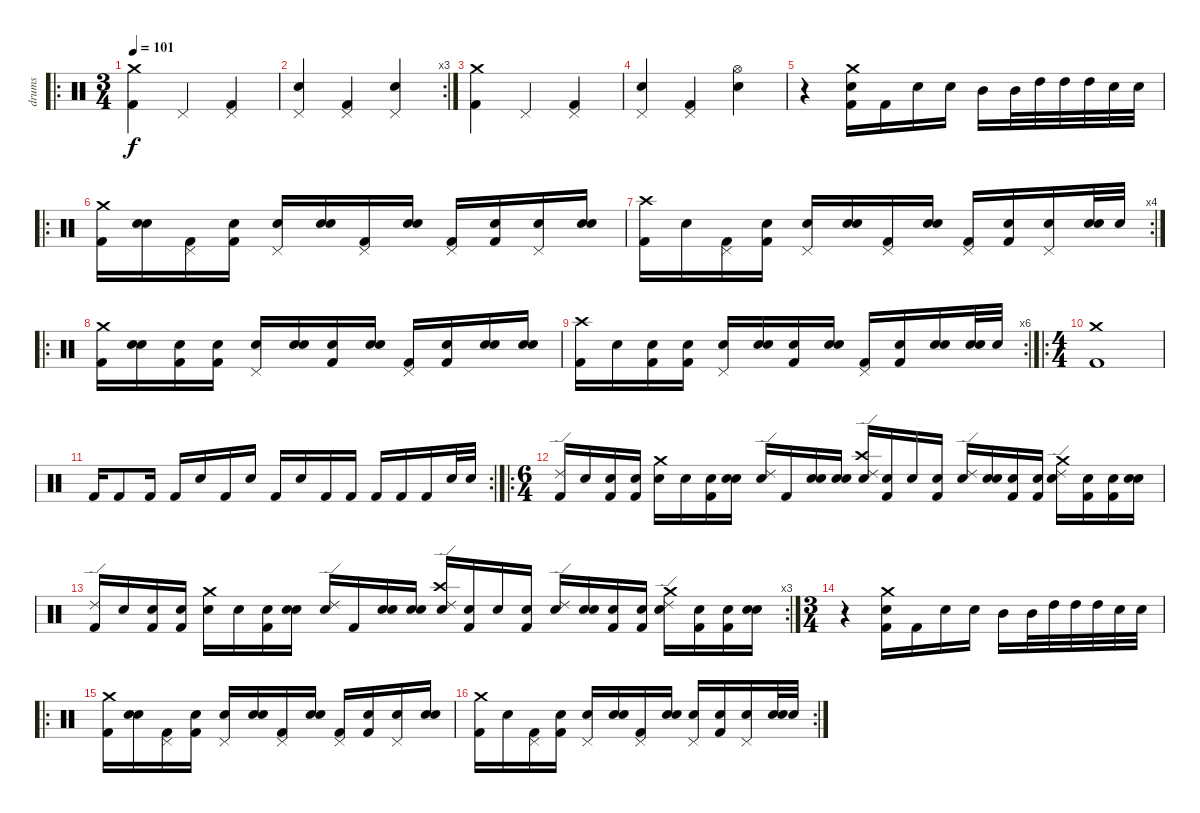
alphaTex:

\track ("drums" "drums") {instrument percussion}
\staff {score}
\articulation defaults
\ro
\ts (3 4)
\tempo 101
\clef neutral
\ks c
("Crash medium (hit)" "Kick (hit) 2").4{dy f} "Pedal Hi-Hat (hit)".4 ("Pedal Hi-Hat (hit)" "Kick (hit) 2").4 |
\rc 3
("Pedal Hi-Hat (hit)" "Snare (hit)").4 ("Pedal Hi-Hat (hit)" "Kick (hit) 2").4 ("Pedal Hi-Hat (hit)" "Snare (hit)").4 |
("Crash medium (hit)" "Kick (hit) 2").4 "Pedal Hi-Hat (hit)".4 ("Pedal Hi-Hat (hit)" "Kick (hit) 2").4 |
("Pedal Hi-Hat (hit)" "Snare (hit)").4 ("Pedal Hi-Hat (hit)" "Kick (hit) 2").4 ("Hi-Hat (open)" "Snare (hit)").4 |
r.4 ("Crash medium (hit)" "Kick (hit) 2" "Electric Snare (hit)").16 "Kick (hit) 2".16 "Electric Snare (hit)".16 "Electric Snare (hit)".16 "Mid Tom (hit)".16 "Mid Tom (hit)".32 "High Tom (hit)".32 "High Tom (hit)".32 "High Tom (hit)".32 "Electric Snare (hit)".32 "Electric Snare (hit)".32 |
\ro
("Crash medium (hit)" "Kick (hit) 2").16 ("Snare (hit)" "Snare (hit)").16 ("Pedal Hi-Hat (hit)" "Kick (hit) 2").16 ("Snare (hit)" "Kick (hit) 2").16 ("Pedal Hi-Hat (hit)" "Electric Snare (hit)").16 ("Snare (hit)" "Snare (hit)").16 ("Pedal Hi-Hat (hit)" "Kick (hit) 2").16 ("Snare (hit)" "Snare (hit)").16 ("Pedal Hi-Hat (hit)" "Kick (hit) 2").16 ("Snare (hit)" "Kick (hit) 2").16 ("Pedal Hi-Hat (hit)" "Electric Snare (hit)").16 ("Snare (hit)" "Electric Snare (hit)").16 |
\rc 4
("Crash high (hit)" "Kick (hit) 2").16 "Snare (hit)".16 ("Pedal Hi-Hat (hit)" "Kick (hit) 2").16 ("Snare (hit)" "Kick (hit) 2").16 ("Pedal Hi-Hat (hit)" "Electric Snare (hit)").16 ("Snare (hit)" "Snare (hit)").16 ("Pedal Hi-Hat (hit)" "Kick (hit) 2").16 ("Snare (hit)" "Snare (hit)").16 ("Pedal Hi-Hat (hit)" "Kick (hit) 2").16 ("Snare (hit)" "Kick (hit) 2").16 ("Pedal Hi-Hat (hit)" "Electric Snare (hit)").16 ("Snare (hit)" "Electric Snare (hit)").32 "Electric Snare (hit)".32 |
\ro
("Crash medium (hit)" "Kick (hit) 2").16 ("Snare (hit)" "Snare (hit)").16 ("Snare (hit)" "Kick (hit) 2").16 ("Snare (hit)" "Kick (hit) 2").16 ("Pedal Hi-Hat (hit)" "Electric Snare (hit)").16 ("Snare (hit)" "Snare (hit)").16 ("Snare (hit)" "Kick (hit) 2").16 ("Snare (hit)" "Snare (hit)").16 ("Pedal Hi-Hat (hit)" "Kick (hit) 2").16 ("Snare (hit)" "Kick (hit) 2").16 ("Snare (hit)" "Electric Snare (hit)").16 ("Snare (hit)" "Electric Snare (hit)").16 |
\rc 6
("Crash high (hit)" "Kick (hit) 2").16 "Snare (hit)".16 ("Snare (hit)" "Kick (hit) 2").16 ("Snare (hit)" "Kick (hit) 2").16 ("Pedal Hi-Hat (hit)" "Electric Snare (hit)").16 ("Snare (hit)" "Snare (hit)").16 ("Snare (hit)" "Kick (hit) 2").16 ("Snare (hit)" "Snare (hit)").16 ("Pedal Hi-Hat (hit)" "Kick (hit) 2").16 ("Snare (hit)" "Kick (hit) 2").16 ("Snare (hit)" "Electric Snare (hit)").16 ("Snare (hit)" "Electric Snare (hit)").32 "Electric Snare (hit)".32 |
\ro
\ts (4 4)
("Crash medium (hit)" "Kick (hit) 2").1 |
\rc 2 "Kick (hit) 2".16 "Kick (hit) 2".8 "Kick (hit) 2".16 "Kick (hit) 2".16 "Electric Snare (hit)".16 "Kick (hit) 2".16 "Snare (hit)".16 "Kick (hit) 2".16 "Snare (hit)".16 "Kick (hit) 2".16 "Kick (hit) 2".16 "Kick (hit) 2".16 "Kick (hit) 2".16 "Kick (hit) 2".16 "Electric Snare (hit)".32 "Electric Snare (hit)".32
|
\ro
\ts (6 4)
("Ride (edge) 2" "Kick (hit) 2").16 "Snare (hit)".16 ("Snare (hit)" "Kick (hit) 2").16 ("Snare (hit)" "Kick (hit) 2").16 ("Crash medium (hit)" "Electric Snare (hit)").16 "Snare (hit)".16 ("Snare (hit)" "Kick (hit) 2").16 ("Snare (hit)" "Snare (hit)").16 ("Ride (edge) 2" "Snare (hit)").16 "Kick (hit) 2".16 ("Snare (hit)" "Snare (hit)").16 ("Snare (hit)" "Snare (hit)").16 ("Crash high (hit)" "Electric Snare (hit)" "Ride (edge) 2").16 ("Snare (hit)" "Kick (hit) 2").16 "Snare (hit)".16 ("Snare (hit)" "Kick (hit) 2").16 ("Snare (hit)" "Ride (edge) 2").16 ("Snare (hit)" "Snare (hit)").16 ("Snare (hit)" "Kick (hit) 2").16 ("Snare (hit)" "Kick (hit) 2").16 ("Crash medium (hit)" "Electric Snare (hit)" "Ride (edge) 2").16 ("Snare (hit)" "Kick (hit) 2").16 ("Snare (hit)" "Kick (hit) 2").16 ("Snare (hit)" "Snare (hit)").16 |
\rc 3
("Ride (edge) 2" "Kick (hit) 2").16 "Snare (hit)".16 ("Snare (hit)" "Kick (hit) 2").16 ("Snare (hit)" "Kick (hit) 2").16 ("Crash medium (hit)" "Electric Snare (hit)").16 "Snare (hit)".16 ("Snare (hit)" "Kick (hit) 2").16 ("Snare (hit)" "Snare (hit)").16 ("Ride (edge) 2" "Snare (hit)").16 "Kick (hit) 2".16 ("Snare (hit)" "Snare (hit)").16 ("Snare (hit)" "Snare (hit)").16 ("Crash high (hit)" "Electric Snare (hit)" "Ride (edge) 2").16 ("Snare (hit)" "Kick (hit) 2").16 "Snare (hit)".16 ("Snare (hit)" "Kick (hit) 2").16 ("Snare (hit)" "Ride (edge) 2").16 ("Snare (hit)" "Snare (hit)").16 ("Snare (hit)" "Kick (hit) 2").16 ("Snare (hit)" "Kick (hit) 2").16 ("Crash medium (hit)" "Electric Snare (hit)" "Ride (edge) 2").16 ("Snare (hit)" "Kick (hit) 2").16 ("Snare (hit)" "Kick (hit) 2").16 ("Snare (hit)" "Snare (hit)").16 |
\ts (3 4)
r.4 ("Crash medium (hit)" "Kick (hit) 2" "Electric Snare (hit)").16 "Kick (hit) 2".16 "Electric Snare (hit)".16 "Electric Snare (hit)".16 "Mid Tom (hit)".16 "Mid Tom (hit)".32 "High Tom (hit)".32 "High Tom (hit)".32 "High Tom (hit)".32 "Electric Snare (hit)".32 "Electric Snare (hit)".32 |
\ro
("Crash medium (hit)" "Kick (hit) 2").16 ("Snare (hit)" "Snare (hit)").16 ("Pedal Hi-Hat (hit)" "Kick (hit) 2").16 ("Snare (hit)" "Kick (hit) 2").16 ("Pedal Hi-Hat (hit)" "Electric Snare (hit)").16 ("Snare (hit)" "Snare (hit)").16 ("Pedal Hi-Hat (hit)" "Kick (hit) 2").16 ("Snare (hit)" "Snare (hit)").16 ("Pedal Hi-Hat (hit)" "Kick (hit) 2").16 ("Snare (hit)" "Kick (hit) 2").16 ("Pedal Hi-Hat (hit)" "Electric Snare (hit)").16 ("Snare (hit)" "Electric Snare (hit)").16 |
\rc 2
("Crash medium (hit)" "Kick (hit) 2").16 "Snare (hit)".16 ("Pedal Hi-Hat (hit)" "Kick (hit) 2").16 ("Snare (hit)" "Kick (hit) 2").16 ("Pedal Hi-Hat (hit)" "Electric Snare (hit)").16 ("Snare (hit)" "Snare (hit)").16 ("Pedal Hi-Hat (hit)" "Kick (hit) 2").16 ("Snare (hit)" "Snare (hit)").16 ("Pedal Hi-Hat (hit)" "Snare (hit)").16 ("Snare (hit)" "Kick (hit) 2").16 ("Pedal Hi-Hat (hit)" "Electric Snare (hit)").16 ("Snare (hit)" "Electric Snare (hit)").32 "Electric Snare (hit)".32
